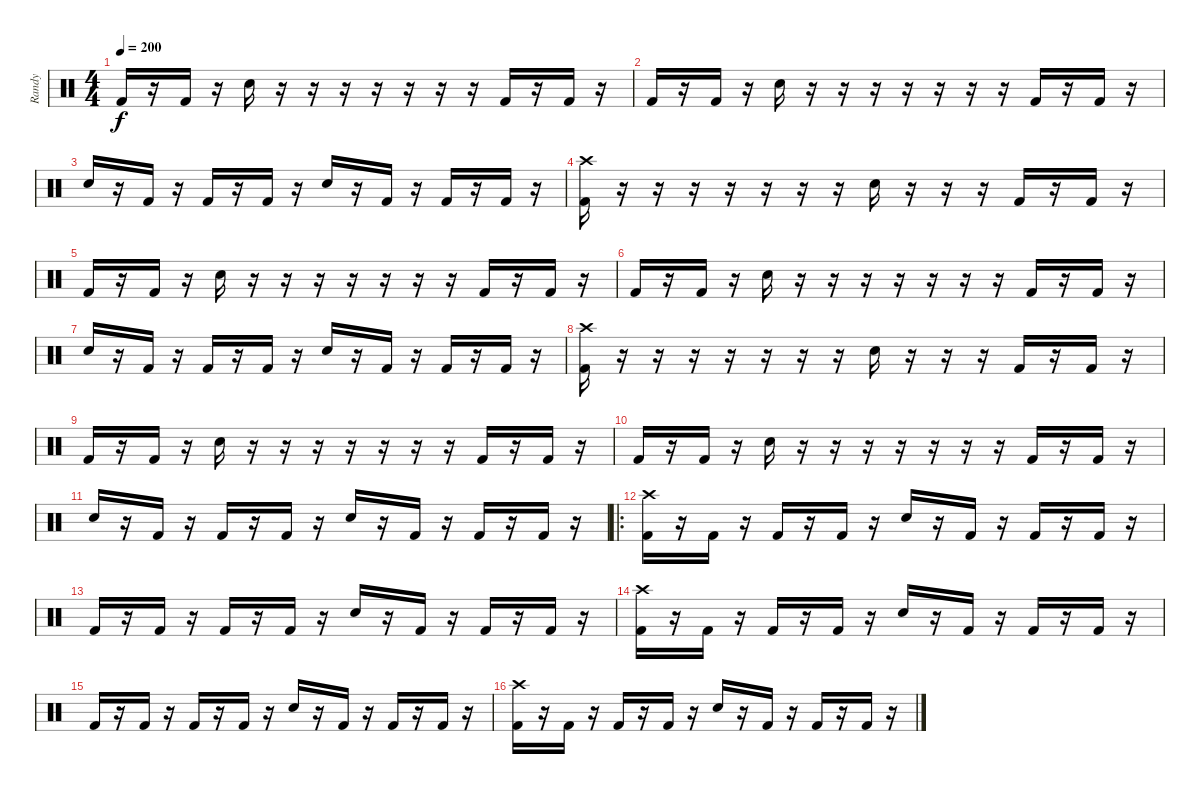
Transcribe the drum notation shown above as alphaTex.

\track ("Randy" "Randy") {instrument percussion}
\staff {score}
\articulation defaults
\ts (4 4)
\tempo 200
\clef neutral
\ks c "Kick (hit) 2".16{dy f}
r.16 "Kick (hit) 2".16 r.16 "Electric Snare (hit)".16 r.16 r.16 r.16 r.16 r.16 r.16 r.16 "Kick (hit) 2".16 r.16 "Kick (hit) 2".16 r.16 |
"Kick (hit) 2".16 r.16 "Kick (hit) 2".16 r.16 "Electric Snare (hit)".16 r.16 r.16 r.16 r.16 r.16 r.16 r.16 "Kick (hit) 2".16 r.16 "Kick (hit) 2".16 r.16 |
"Electric Snare (hit)".16 r.16 "Kick (hit) 2".16 r.16 "Kick (hit) 2".16 r.16 "Kick (hit) 2".16 r.16 "Electric Snare (hit)".16 r.16 "Kick (hit) 2".16 r.16 "Kick (hit) 2".16 r.16 "Kick (hit) 2".16 r.16 |
("Kick (hit) 2" "Crash high (hit)").16 r.16 r.16 r.16 r.16 r.16 r.16 r.16 "Electric Snare (hit)".16 r.16 r.16 r.16 "Kick (hit) 2".16 r.16 "Kick (hit) 2".16 r.16 |
"Kick (hit) 2".16 r.16 "Kick (hit) 2".16 r.16 "Electric Snare (hit)".16 r.16 r.16 r.16 r.16 r.16 r.16 r.16 "Kick (hit) 2".16 r.16 "Kick (hit) 2".16 r.16 |
"Kick (hit) 2".16 r.16 "Kick (hit) 2".16 r.16 "Electric Snare (hit)".16 r.16 r.16 r.16 r.16 r.16 r.16 r.16 "Kick (hit) 2".16 r.16 "Kick (hit) 2".16 r.16 |
"Electric Snare (hit)".16 r.16 "Kick (hit) 2".16 r.16 "Kick (hit) 2".16 r.16 "Kick (hit) 2".16 r.16 "Electric Snare (hit)".16 r.16 "Kick (hit) 2".16 r.16 "Kick (hit) 2".16 r.16 "Kick (hit) 2".16 r.16 |
("Kick (hit) 2" "Crash high (hit)").16 r.16 r.16 r.16 r.16 r.16 r.16 r.16 "Electric Snare (hit)".16 r.16 r.16 r.16 "Kick (hit) 2".16 r.16 "Kick (hit) 2".16 r.16 |
"Kick (hit) 2".16 r.16 "Kick (hit) 2".16 r.16 "Electric Snare (hit)".16 r.16 r.16 r.16 r.16 r.16 r.16 r.16 "Kick (hit) 2".16 r.16 "Kick (hit) 2".16 r.16 |
"Kick (hit) 2".16 r.16 "Kick (hit) 2".16 r.16 "Electric Snare (hit)".16 r.16 r.16 r.16 r.16 r.16 r.16 r.16 "Kick (hit) 2".16 r.16 "Kick (hit) 2".16 r.16 |
"Electric Snare (hit)".16 r.16 "Kick (hit) 2".16 r.16 "Kick (hit) 2".16 r.16 "Kick (hit) 2".16 r.16 "Electric Snare (hit)".16 r.16 "Kick (hit) 2".16 r.16 "Kick (hit) 2".16 r.16 "Kick (hit) 2".16 r.16 |
\ro
("Kick (hit) 2" "Crash high (hit)").16 r.16 "Kick (hit) 2".16 r.16 "Kick (hit) 2".16 r.16 "Kick (hit) 2".16 r.16 "Electric Snare (hit)".16 r.16 "Kick (hit) 2".16 r.16 "Kick (hit) 2".16 r.16 "Kick (hit) 2".16 r.16 |
"Kick (hit) 2".16 r.16 "Kick (hit) 2".16 r.16 "Kick (hit) 2".16 r.16 "Kick (hit) 2".16 r.16 "Electric Snare (hit)".16 r.16 "Kick (hit) 2".16 r.16 "Kick (hit) 2".16 r.16 "Kick (hit) 2".16 r.16 |
("Kick (hit) 2" "Crash high (hit)").16 r.16 "Kick (hit) 2".16 r.16 "Kick (hit) 2".16 r.16 "Kick (hit) 2".16 r.16 "Electric Snare (hit)".16 r.16 "Kick (hit) 2".16 r.16 "Kick (hit) 2".16 r.16 "Kick (hit) 2".16 r.16 |
"Kick (hit) 2".16 r.16 "Kick (hit) 2".16 r.16 "Kick (hit) 2".16 r.16 "Kick (hit) 2".16 r.16 "Electric Snare (hit)".16 r.16 "Kick (hit) 2".16 r.16 "Kick (hit) 2".16 r.16 "Kick (hit) 2".16 r.16 |
("Kick (hit) 2" "Crash high (hit)").16 r.16 "Kick (hit) 2".16 r.16 "Kick (hit) 2".16 r.16 "Kick (hit) 2".16 r.16 "Electric Snare (hit)".16 r.16 "Kick (hit) 2".16 r.16 "Kick (hit) 2".16 r.16 "Kick (hit) 2".16 r.16
